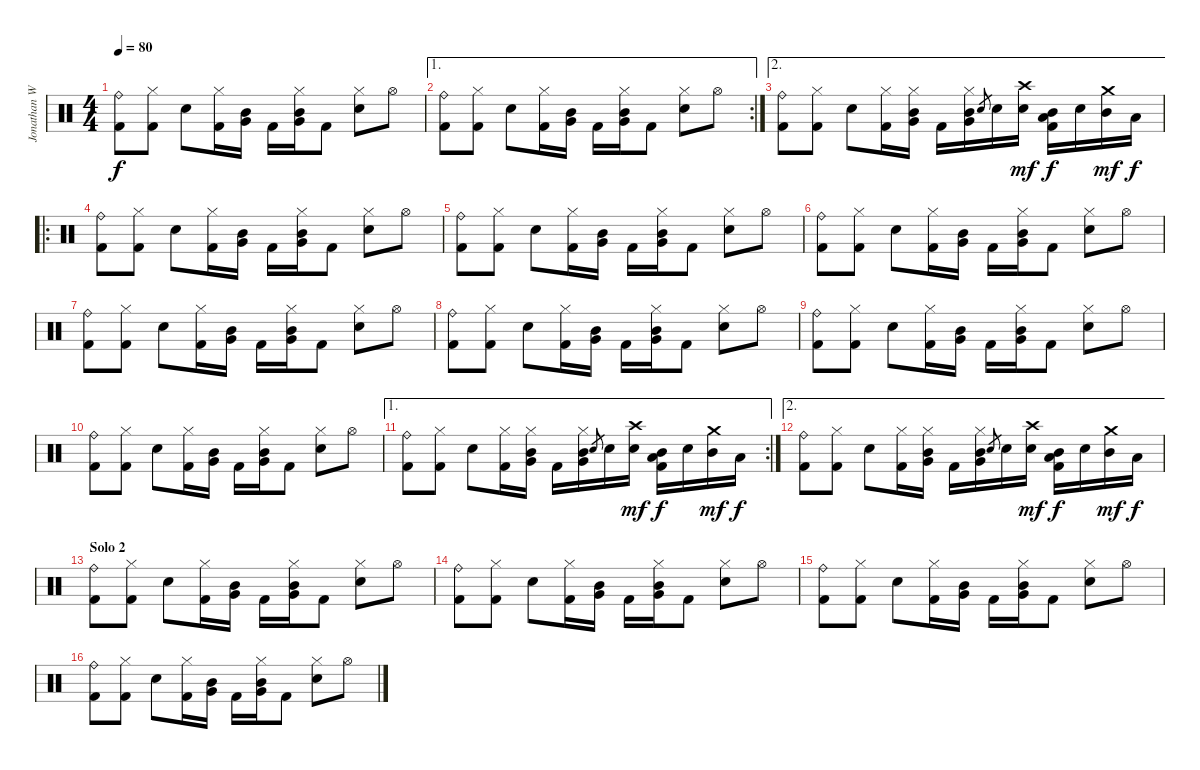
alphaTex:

\track ("Jonathan Wenzel" "Jonathan W") {instrument percussion}
\staff {score}
\articulation defaults
\ts (4 4)
\tempo 80
\clef neutral
\ks c
("Ride (bell)" "Kick (hit) 2").8{dy f} ("Hi-Hat (closed)" "Kick (hit) 2").8 "Snare (hit) 2".8 ("Hi-Hat (closed)" "Kick (hit) 2").16 ("Mid Tom (hit)" "Very Low Tom (hit)").16 "Kick (hit) 2".16 ("Hi-Hat (closed)" "Mid Tom (hit)" "Very Low Tom (hit)").16 "Kick (hit) 2".8 ("Hi-Hat (closed)" "Snare (hit) 2").8 "Hi-Hat (open)".8 |
\ae 1
\rc 2
("Ride (bell)" "Kick (hit) 2").8 ("Hi-Hat (closed)" "Kick (hit) 2").8 "Snare (hit) 2".8 ("Hi-Hat (closed)" "Kick (hit) 2").16 ("Mid Tom (hit)" "Very Low Tom (hit)").16 "Kick (hit) 2".16 ("Hi-Hat (closed)" "Mid Tom (hit)" "Very Low Tom (hit)").16 "Kick (hit) 2".8 ("Hi-Hat (closed)" "Snare (hit) 2").8 "Hi-Hat (open)".8 |
\ae 2
("Ride (bell)" "Kick (hit) 2").8 ("Hi-Hat (closed)" "Kick (hit) 2").8 "Snare (hit) 2".8 ("Hi-Hat (closed)" "Kick (hit) 2").16 ("Hi-Hat (closed)" "Mid Tom (hit)" "Very Low Tom (hit)").16 "Kick (hit) 2".16 ("Hi-Hat (closed)" "Mid Tom (hit)" "Very Low Tom (hit)").16 "Electric Snare (hit)".8{gr} "Electric Snare (hit)".16 ("Crash high (hit)" "Electric Snare (hit)").16{dy mf} ("Mid Tom (hit)" "Low Floor Tom (hit)" "Kick (hit) 2").16{dy f} "Electric Snare (hit)".16 ("Crash medium (hit)" "Mid Tom (hit)").16{dy mf} "Low Floor Tom (hit)".16{dy f} |
\ro
("Ride (bell)" "Kick (hit) 2").8 ("Hi-Hat (closed)" "Kick (hit) 2").8 "Snare (hit) 2".8 ("Hi-Hat (closed)" "Kick (hit) 2").16 ("Mid Tom (hit)" "Very Low Tom (hit)").16 "Kick (hit) 2".16 ("Hi-Hat (closed)" "Mid Tom (hit)" "Very Low Tom (hit)").16 "Kick (hit) 2".8 ("Hi-Hat (closed)" "Snare (hit) 2").8 "Hi-Hat (open)".8 |
("Ride (bell)" "Kick (hit) 2").8 ("Hi-Hat (closed)" "Kick (hit) 2").8 "Snare (hit) 2".8 ("Hi-Hat (closed)" "Kick (hit) 2").16 ("Mid Tom (hit)" "Very Low Tom (hit)").16 "Kick (hit) 2".16 ("Hi-Hat (closed)" "Mid Tom (hit)" "Very Low Tom (hit)").16 "Kick (hit) 2".8 ("Hi-Hat (closed)" "Snare (hit) 2").8 "Hi-Hat (open)".8 |
("Ride (bell)" "Kick (hit) 2").8 ("Hi-Hat (closed)" "Kick (hit) 2").8 "Snare (hit) 2".8 ("Hi-Hat (closed)" "Kick (hit) 2").16 ("Mid Tom (hit)" "Very Low Tom (hit)").16 "Kick (hit) 2".16 ("Hi-Hat (closed)" "Mid Tom (hit)" "Very Low Tom (hit)").16 "Kick (hit) 2".8 ("Hi-Hat (closed)" "Snare (hit) 2").8 "Hi-Hat (open)".8 |
("Ride (bell)" "Kick (hit) 2").8 ("Hi-Hat (closed)" "Kick (hit) 2").8 "Snare (hit) 2".8 ("Hi-Hat (closed)" "Kick (hit) 2").16 ("Mid Tom (hit)" "Very Low Tom (hit)").16 "Kick (hit) 2".16 ("Hi-Hat (closed)" "Mid Tom (hit)" "Very Low Tom (hit)").16 "Kick (hit) 2".8 ("Hi-Hat (closed)" "Snare (hit) 2").8 "Hi-Hat (open)".8 |
("Ride (bell)" "Kick (hit) 2").8 ("Hi-Hat (closed)" "Kick (hit) 2").8 "Snare (hit) 2".8 ("Hi-Hat (closed)" "Kick (hit) 2").16 ("Mid Tom (hit)" "Very Low Tom (hit)").16 "Kick (hit) 2".16 ("Hi-Hat (closed)" "Mid Tom (hit)" "Very Low Tom (hit)").16 "Kick (hit) 2".8 ("Hi-Hat (closed)" "Snare (hit) 2").8 "Hi-Hat (open)".8 |
("Ride (bell)" "Kick (hit) 2").8 ("Hi-Hat (closed)" "Kick (hit) 2").8 "Snare (hit) 2".8 ("Hi-Hat (closed)" "Kick (hit) 2").16 ("Mid Tom (hit)" "Very Low Tom (hit)").16 "Kick (hit) 2".16 ("Hi-Hat (closed)" "Mid Tom (hit)" "Very Low Tom (hit)").16 "Kick (hit) 2".8 ("Hi-Hat (closed)" "Snare (hit) 2").8 "Hi-Hat (open)".8 |
("Ride (bell)" "Kick (hit) 2").8 ("Hi-Hat (closed)" "Kick (hit) 2").8 "Snare (hit) 2".8 ("Hi-Hat (closed)" "Kick (hit) 2").16 ("Mid Tom (hit)" "Very Low Tom (hit)").16 "Kick (hit) 2".16 ("Hi-Hat (closed)" "Mid Tom (hit)" "Very Low Tom (hit)").16 "Kick (hit) 2".8 ("Hi-Hat (closed)" "Snare (hit) 2").8 "Hi-Hat (open)".8 |
\ae 1
\rc 2
("Ride (bell)" "Kick (hit) 2").8 ("Hi-Hat (closed)" "Kick (hit) 2").8 "Snare (hit) 2".8 ("Hi-Hat (closed)" "Kick (hit) 2").16 ("Hi-Hat (closed)" "Mid Tom (hit)" "Very Low Tom (hit)").16 "Kick (hit) 2".16 ("Hi-Hat (closed)" "Mid Tom (hit)" "Very Low Tom (hit)").16 "Electric Snare (hit)".8{gr} "Electric Snare (hit)".16 ("Crash high (hit)" "Electric Snare (hit)").16{dy mf} ("Mid Tom (hit)" "Low Floor Tom (hit)" "Kick (hit) 2").16{dy f} "Electric Snare (hit)".16 ("Crash medium (hit)" "Mid Tom (hit)").16{dy mf} "Low Floor Tom (hit)".16{dy f} |
\ae 2
("Ride (bell)" "Kick (hit) 2").8 ("Hi-Hat (closed)" "Kick (hit) 2").8 "Snare (hit) 2".8 ("Hi-Hat (closed)" "Kick (hit) 2").16 ("Hi-Hat (closed)" "Mid Tom (hit)" "Very Low Tom (hit)").16 "Kick (hit) 2".16 ("Hi-Hat (closed)" "Mid Tom (hit)" "Very Low Tom (hit)").16 "Electric Snare (hit)".8{gr} "Electric Snare (hit)".16 ("Crash high (hit)" "Electric Snare (hit)").16{dy mf} ("Mid Tom (hit)" "Low Floor Tom (hit)" "Kick (hit) 2").16{dy f} "Electric Snare (hit)".16 ("Crash medium (hit)" "Mid Tom (hit)").16{dy mf} "Low Floor Tom (hit)".16{dy f} |
\section ("" "Solo 2")
("Ride (bell)" "Kick (hit) 2").8{volume 16} ("Hi-Hat (closed)" "Kick (hit) 2").8 "Snare (hit) 2".8 ("Hi-Hat (closed)" "Kick (hit) 2").16 ("Mid Tom (hit)" "Very Low Tom (hit)").16 "Kick (hit) 2".16 ("Hi-Hat (closed)" "Mid Tom (hit)" "Very Low Tom (hit)").16 "Kick (hit) 2".8 ("Hi-Hat (closed)" "Snare (hit) 2").8 "Hi-Hat (open)".8 |
("Ride (bell)" "Kick (hit) 2").8 ("Hi-Hat (closed)" "Kick (hit) 2").8 "Snare (hit) 2".8 ("Hi-Hat (closed)" "Kick (hit) 2").16 ("Mid Tom (hit)" "Very Low Tom (hit)").16 "Kick (hit) 2".16 ("Hi-Hat (closed)" "Mid Tom (hit)" "Very Low Tom (hit)").16 "Kick (hit) 2".8 ("Hi-Hat (closed)" "Snare (hit) 2").8 "Hi-Hat (open)".8 |
("Ride (bell)" "Kick (hit) 2").8 ("Hi-Hat (closed)" "Kick (hit) 2").8 "Snare (hit) 2".8 ("Hi-Hat (closed)" "Kick (hit) 2").16 ("Mid Tom (hit)" "Very Low Tom (hit)").16 "Kick (hit) 2".16 ("Hi-Hat (closed)" "Mid Tom (hit)" "Very Low Tom (hit)").16 "Kick (hit) 2".8 ("Hi-Hat (closed)" "Snare (hit) 2").8 "Hi-Hat (open)".8 |
("Ride (bell)" "Kick (hit) 2").8 ("Hi-Hat (closed)" "Kick (hit) 2").8 "Snare (hit) 2".8 ("Hi-Hat (closed)" "Kick (hit) 2").16 ("Mid Tom (hit)" "Very Low Tom (hit)").16 "Kick (hit) 2".16 ("Hi-Hat (closed)" "Mid Tom (hit)" "Very Low Tom (hit)").16 "Kick (hit) 2".8 ("Hi-Hat (closed)" "Snare (hit) 2").8 "Hi-Hat (open)".8
